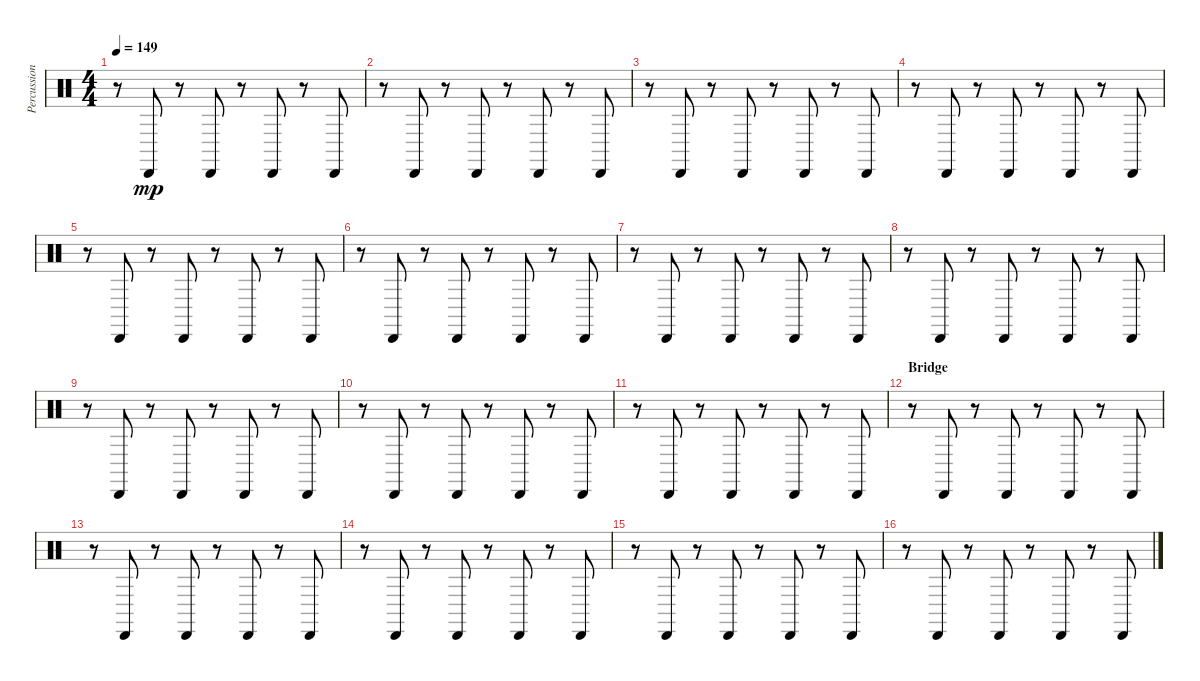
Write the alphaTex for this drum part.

\track ("Percussion 2" "Percussion") {instrument percussion}
\staff {score}
\articulation defaults
\ts (4 4)
\tempo 149
\clef neutral
\ks c
r.8{dy mp} "Cabasa (hit)".8 r.8 "Cabasa (hit)".8 r.8 "Cabasa (hit)".8 r.8 "Cabasa (hit)".8 |
r.8 "Cabasa (hit)".8 r.8 "Cabasa (hit)".8 r.8 "Cabasa (hit)".8 r.8 "Cabasa (hit)".8 |
r.8 "Cabasa (hit)".8 r.8 "Cabasa (hit)".8 r.8 "Cabasa (hit)".8 r.8 "Cabasa (hit)".8 |
r.8 "Cabasa (hit)".8 r.8 "Cabasa (hit)".8 r.8 "Cabasa (hit)".8 r.8 "Cabasa (hit)".8 |
r.8 "Cabasa (hit)".8 r.8 "Cabasa (hit)".8 r.8 "Cabasa (hit)".8 r.8 "Cabasa (hit)".8 |
r.8 "Cabasa (hit)".8 r.8 "Cabasa (hit)".8 r.8 "Cabasa (hit)".8 r.8 "Cabasa (hit)".8 |
r.8 "Cabasa (hit)".8 r.8 "Cabasa (hit)".8 r.8 "Cabasa (hit)".8 r.8 "Cabasa (hit)".8 |
r.8 "Cabasa (hit)".8 r.8 "Cabasa (hit)".8 r.8 "Cabasa (hit)".8 r.8 "Cabasa (hit)".8 |
r.8 "Cabasa (hit)".8 r.8 "Cabasa (hit)".8 r.8 "Cabasa (hit)".8 r.8 "Cabasa (hit)".8 |
r.8 "Cabasa (hit)".8 r.8 "Cabasa (hit)".8 r.8 "Cabasa (hit)".8 r.8 "Cabasa (hit)".8 |
r.8 "Cabasa (hit)".8 r.8 "Cabasa (hit)".8 r.8 "Cabasa (hit)".8 r.8 "Cabasa (hit)".8 |
\section ("" "Bridge")
r.8 "Cabasa (hit)".8 r.8 "Cabasa (hit)".8 r.8 "Cabasa (hit)".8 r.8 "Cabasa (hit)".8 |
r.8 "Cabasa (hit)".8 r.8 "Cabasa (hit)".8 r.8 "Cabasa (hit)".8 r.8 "Cabasa (hit)".8 |
r.8 "Cabasa (hit)".8 r.8 "Cabasa (hit)".8 r.8 "Cabasa (hit)".8 r.8 "Cabasa (hit)".8 |
r.8 "Cabasa (hit)".8 r.8 "Cabasa (hit)".8 r.8 "Cabasa (hit)".8 r.8 "Cabasa (hit)".8 |
r.8 "Cabasa (hit)".8 r.8 "Cabasa (hit)".8 r.8 "Cabasa (hit)".8 r.8 "Cabasa (hit)".8
